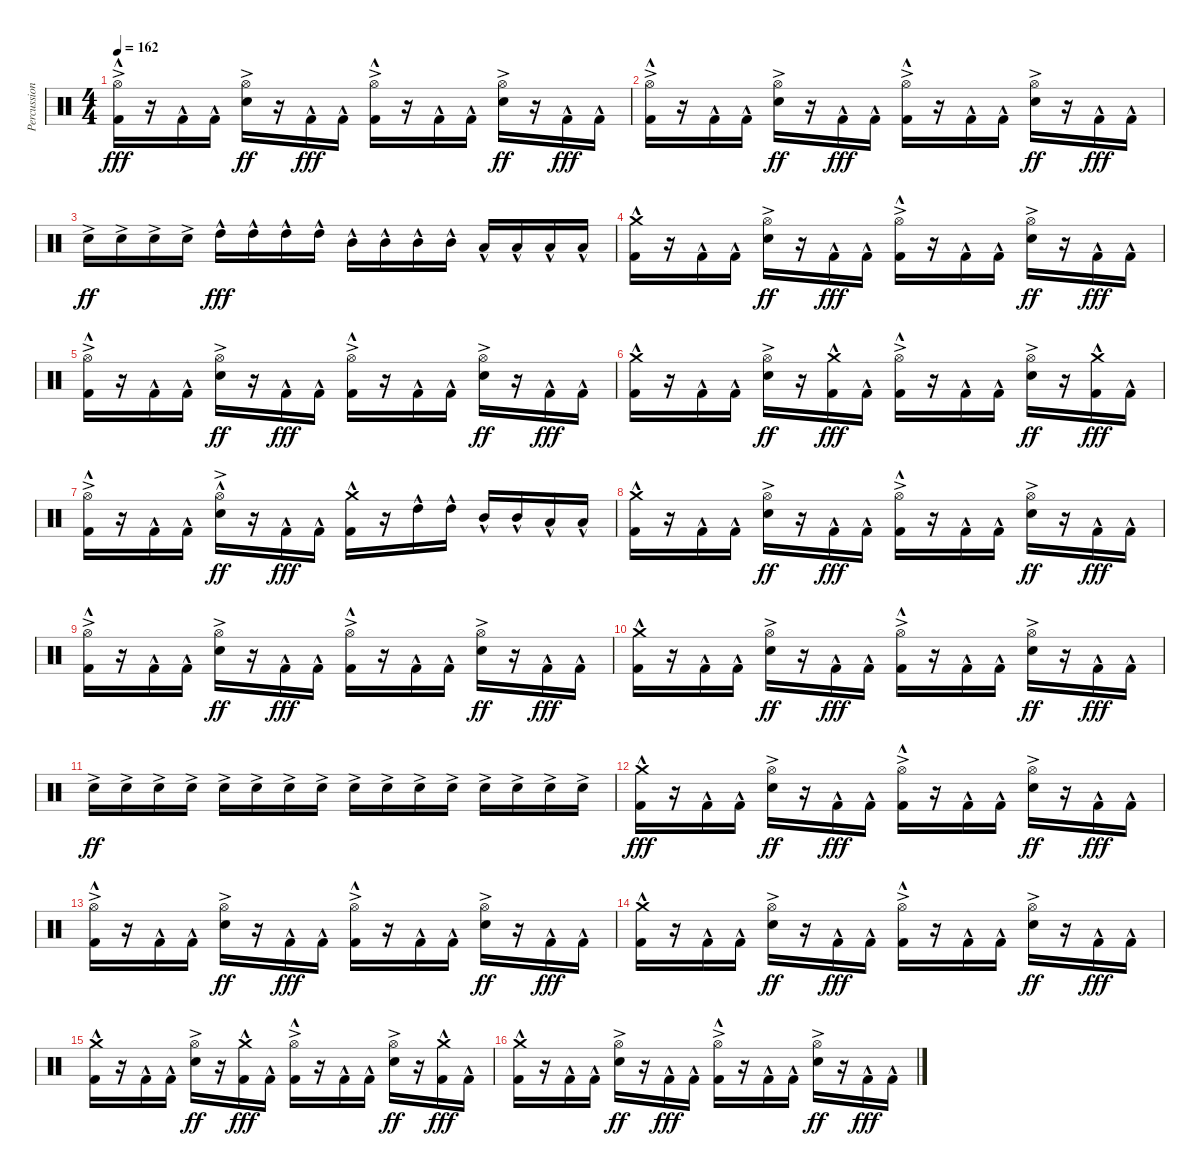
\track ("Percussion" "Percussion") {instrument percussion}
\staff {score}
\articulation defaults
\ts (4 4)
\tempo 162
\clef neutral
\ks c
("Hi-Hat (open)"{ac} "Kick (hit) 2"{hac}).16{dy fff} r.16 "Kick (hit) 2"{hac}.16 "Kick (hit) 2"{hac}.16 ("Hi-Hat (open)"{ac} "Snare (hit) 2"{ac}).16{dy ff} r.16 "Kick (hit) 2"{hac}.16{dy fff} "Kick (hit) 2"{hac}.16 ("Hi-Hat (open)"{ac} "Kick (hit) 2"{hac}).16 r.16 "Kick (hit) 2"{hac}.16 "Kick (hit) 2"{hac}.16 ("Hi-Hat (open)"{ac} "Snare (hit) 2"{ac}).16{dy ff} r.16 "Kick (hit) 2"{hac}.16{dy fff} "Kick (hit) 2"{hac}.16 |
("Hi-Hat (open)"{ac} "Kick (hit) 2"{hac}).16 r.16 "Kick (hit) 2"{hac}.16 "Kick (hit) 2"{hac}.16 ("Hi-Hat (open)"{ac} "Snare (hit) 2"{ac}).16{dy ff} r.16 "Kick (hit) 2"{hac}.16{dy fff} "Kick (hit) 2"{hac}.16 ("Hi-Hat (open)"{ac} "Kick (hit) 2"{hac}).16 r.16 "Kick (hit) 2"{hac}.16 "Kick (hit) 2"{hac}.16 ("Hi-Hat (open)"{ac} "Snare (hit) 2"{ac}).16{dy ff} r.16 "Kick (hit) 2"{hac}.16{dy fff} "Kick (hit) 2"{hac}.16 |
"Snare (hit) 2"{ac}.16{dy ff} "Snare (hit) 2"{ac}.16 "Snare (hit) 2"{ac}.16 "Snare (hit) 2"{ac}.16 "High Tom (hit)"{hac}.16{dy fff} "High Tom (hit)"{hac}.16 "High Tom (hit)"{hac}.16 "High Tom (hit)"{hac}.16 "Mid Tom (hit)"{hac}.16 "Mid Tom (hit)"{hac}.16 "Mid Tom (hit)"{hac}.16 "Mid Tom (hit)"{hac}.16 "Low Tom (hit)"{hac}.16 "Low Tom (hit)"{hac}.16 "Low Tom (hit)"{hac}.16 "Low Tom (hit)"{hac}.16 |
("Crash medium (hit)"{hac} "Kick (hit) 2"{hac}).16 r.16 "Kick (hit) 2"{hac}.16 "Kick (hit) 2"{hac}.16 ("Hi-Hat (open)"{ac} "Snare (hit) 2"{ac}).16{dy ff} r.16 "Kick (hit) 2"{hac}.16{dy fff} "Kick (hit) 2"{hac}.16 ("Hi-Hat (open)"{ac} "Kick (hit) 2"{hac}).16 r.16 "Kick (hit) 2"{hac}.16 "Kick (hit) 2"{hac}.16 ("Hi-Hat (open)"{ac} "Snare (hit) 2"{ac}).16{dy ff} r.16 "Kick (hit) 2"{hac}.16{dy fff} "Kick (hit) 2"{hac}.16 |
("Hi-Hat (open)"{ac} "Kick (hit) 2"{hac}).16 r.16 "Kick (hit) 2"{hac}.16 "Kick (hit) 2"{hac}.16 ("Hi-Hat (open)"{ac} "Snare (hit) 2"{ac}).16{dy ff} r.16 "Kick (hit) 2"{hac}.16{dy fff} "Kick (hit) 2"{hac}.16 ("Hi-Hat (open)"{ac} "Kick (hit) 2"{hac}).16 r.16 "Kick (hit) 2"{hac}.16 "Kick (hit) 2"{hac}.16 ("Hi-Hat (open)"{ac} "Snare (hit) 2"{ac}).16{dy ff} r.16 "Kick (hit) 2"{hac}.16{dy fff} "Kick (hit) 2"{hac}.16 |
("Crash medium (hit)"{hac} "Kick (hit) 2"{hac}).16 r.16 "Kick (hit) 2"{hac}.16 "Kick (hit) 2"{hac}.16 ("Hi-Hat (open)"{ac} "Snare (hit) 2"{ac}).16{dy ff} r.16 ("Crash medium (hit)"{hac} "Kick (hit) 2"{hac}).16{dy fff} "Kick (hit) 2"{hac}.16 ("Hi-Hat (open)"{ac} "Kick (hit) 2"{hac}).16 r.16 "Kick (hit) 2"{hac}.16 "Kick (hit) 2"{hac}.16 ("Hi-Hat (open)"{ac} "Snare (hit) 2"{ac}).16{dy ff} r.16 ("Crash medium (hit)"{hac} "Kick (hit) 2"{hac}).16{dy fff} "Kick (hit) 2"{hac}.16 |
("Hi-Hat (open)"{ac} "Kick (hit) 2"{hac}).16 r.16 "Kick (hit) 2"{hac}.16 "Kick (hit) 2"{hac}.16 ("Hi-Hat (open)"{hac} "Snare (hit) 2"{ac}).16{dy ff} r.16 "Kick (hit) 2"{hac}.16{dy fff} "Kick (hit) 2"{hac}.16 ("Crash medium (hit)"{hac} "Kick (hit) 2"{hac}).16 r.16 "High Tom (hit)"{hac}.16 "High Tom (hit)"{hac}.16 "Mid Tom (hit)"{hac}.16 "Mid Tom (hit)"{hac}.16 "Low Tom (hit)"{hac}.16 "Low Tom (hit)"{hac}.16 |
("Crash medium (hit)"{hac} "Kick (hit) 2"{hac}).16 r.16 "Kick (hit) 2"{hac}.16 "Kick (hit) 2"{hac}.16 ("Hi-Hat (open)"{ac} "Snare (hit) 2"{ac}).16{dy ff} r.16 "Kick (hit) 2"{hac}.16{dy fff} "Kick (hit) 2"{hac}.16 ("Hi-Hat (open)"{ac} "Kick (hit) 2"{hac}).16 r.16 "Kick (hit) 2"{hac}.16 "Kick (hit) 2"{hac}.16 ("Hi-Hat (open)"{ac} "Snare (hit) 2"{ac}).16{dy ff} r.16 "Kick (hit) 2"{hac}.16{dy fff} "Kick (hit) 2"{hac}.16 |
("Hi-Hat (open)"{ac} "Kick (hit) 2"{hac}).16 r.16 "Kick (hit) 2"{hac}.16 "Kick (hit) 2"{hac}.16 ("Hi-Hat (open)"{ac} "Snare (hit) 2"{ac}).16{dy ff} r.16 "Kick (hit) 2"{hac}.16{dy fff} "Kick (hit) 2"{hac}.16 ("Hi-Hat (open)"{ac} "Kick (hit) 2"{hac}).16 r.16 "Kick (hit) 2"{hac}.16 "Kick (hit) 2"{hac}.16 ("Hi-Hat (open)"{ac} "Snare (hit) 2"{ac}).16{dy ff} r.16 "Kick (hit) 2"{hac}.16{dy fff} "Kick (hit) 2"{hac}.16 |
("Crash medium (hit)"{hac} "Kick (hit) 2"{hac}).16 r.16 "Kick (hit) 2"{hac}.16 "Kick (hit) 2"{hac}.16 ("Hi-Hat (open)"{ac} "Snare (hit) 2"{ac}).16{dy ff} r.16 "Kick (hit) 2"{hac}.16{dy fff} "Kick (hit) 2"{hac}.16 ("Hi-Hat (open)"{ac} "Kick (hit) 2"{hac}).16 r.16 "Kick (hit) 2"{hac}.16 "Kick (hit) 2"{hac}.16 ("Hi-Hat (open)"{ac} "Snare (hit) 2"{ac}).16{dy ff} r.16 "Kick (hit) 2"{hac}.16{dy fff} "Kick (hit) 2"{hac}.16 |
"Snare (hit) 2"{ac}.16{dy ff} "Snare (hit) 2"{ac}.16 "Snare (hit) 2"{ac}.16 "Snare (hit) 2"{ac}.16 "Snare (hit) 2"{ac}.16 "Snare (hit) 2"{ac}.16 "Snare (hit) 2"{ac}.16 "Snare (hit) 2"{ac}.16 "Snare (hit) 2"{ac}.16 "Snare (hit) 2"{ac}.16 "Snare (hit) 2"{ac}.16 "Snare (hit) 2"{ac}.16 "Snare (hit) 2"{ac}.16 "Snare (hit) 2"{ac}.16 "Snare (hit) 2"{ac}.16 "Snare (hit) 2"{ac}.16 |
("Crash medium (hit)"{hac} "Kick (hit) 2"{hac}).16{dy fff} r.16 "Kick (hit) 2"{hac}.16 "Kick (hit) 2"{hac}.16 ("Hi-Hat (open)"{ac} "Snare (hit) 2"{ac}).16{dy ff} r.16 "Kick (hit) 2"{hac}.16{dy fff} "Kick (hit) 2"{hac}.16 ("Hi-Hat (open)"{ac} "Kick (hit) 2"{hac}).16 r.16 "Kick (hit) 2"{hac}.16 "Kick (hit) 2"{hac}.16 ("Hi-Hat (open)"{ac} "Snare (hit) 2"{ac}).16{dy ff} r.16 "Kick (hit) 2"{hac}.16{dy fff} "Kick (hit) 2"{hac}.16 |
("Hi-Hat (open)"{ac} "Kick (hit) 2"{hac}).16 r.16 "Kick (hit) 2"{hac}.16 "Kick (hit) 2"{hac}.16 ("Hi-Hat (open)"{ac} "Snare (hit) 2"{ac}).16{dy ff} r.16 "Kick (hit) 2"{hac}.16{dy fff} "Kick (hit) 2"{hac}.16 ("Hi-Hat (open)"{ac} "Kick (hit) 2"{hac}).16 r.16 "Kick (hit) 2"{hac}.16 "Kick (hit) 2"{hac}.16 ("Hi-Hat (open)"{ac} "Snare (hit) 2"{ac}).16{dy ff} r.16 "Kick (hit) 2"{hac}.16{dy fff} "Kick (hit) 2"{hac}.16 |
("Crash medium (hit)"{hac} "Kick (hit) 2"{hac}).16 r.16 "Kick (hit) 2"{hac}.16 "Kick (hit) 2"{hac}.16 ("Hi-Hat (open)"{ac} "Snare (hit) 2"{ac}).16{dy ff} r.16 "Kick (hit) 2"{hac}.16{dy fff} "Kick (hit) 2"{hac}.16 ("Hi-Hat (open)"{ac} "Kick (hit) 2"{hac}).16 r.16 "Kick (hit) 2"{hac}.16 "Kick (hit) 2"{hac}.16 ("Hi-Hat (open)"{ac} "Snare (hit) 2"{ac}).16{dy ff} r.16 "Kick (hit) 2"{hac}.16{dy fff} "Kick (hit) 2"{hac}.16 |
("Crash medium (hit)"{hac} "Kick (hit) 2"{hac}).16 r.16 "Kick (hit) 2"{hac}.16 "Kick (hit) 2"{hac}.16 ("Hi-Hat (open)"{ac} "Snare (hit) 2"{ac}).16{dy ff} r.16 ("Crash medium (hit)"{hac} "Kick (hit) 2"{hac}).16{dy fff} "Kick (hit) 2"{hac}.16 ("Hi-Hat (open)"{ac} "Kick (hit) 2"{hac}).16 r.16 "Kick (hit) 2"{hac}.16 "Kick (hit) 2"{hac}.16 ("Hi-Hat (open)"{ac} "Snare (hit) 2"{ac}).16{dy ff} r.16 ("Crash medium (hit)"{hac} "Kick (hit) 2"{hac}).16{dy fff} "Kick (hit) 2"{hac}.16 |
("Crash medium (hit)"{hac} "Kick (hit) 2"{hac}).16 r.16 "Kick (hit) 2"{hac}.16 "Kick (hit) 2"{hac}.16 ("Hi-Hat (open)"{ac} "Snare (hit) 2"{ac}).16{dy ff} r.16 "Kick (hit) 2"{hac}.16{dy fff} "Kick (hit) 2"{hac}.16 ("Hi-Hat (open)"{ac} "Kick (hit) 2"{hac}).16 r.16 "Kick (hit) 2"{hac}.16 "Kick (hit) 2"{hac}.16 ("Hi-Hat (open)"{ac} "Snare (hit) 2"{ac}).16{dy ff} r.16 "Kick (hit) 2"{hac}.16{dy fff} "Kick (hit) 2"{hac}.16
